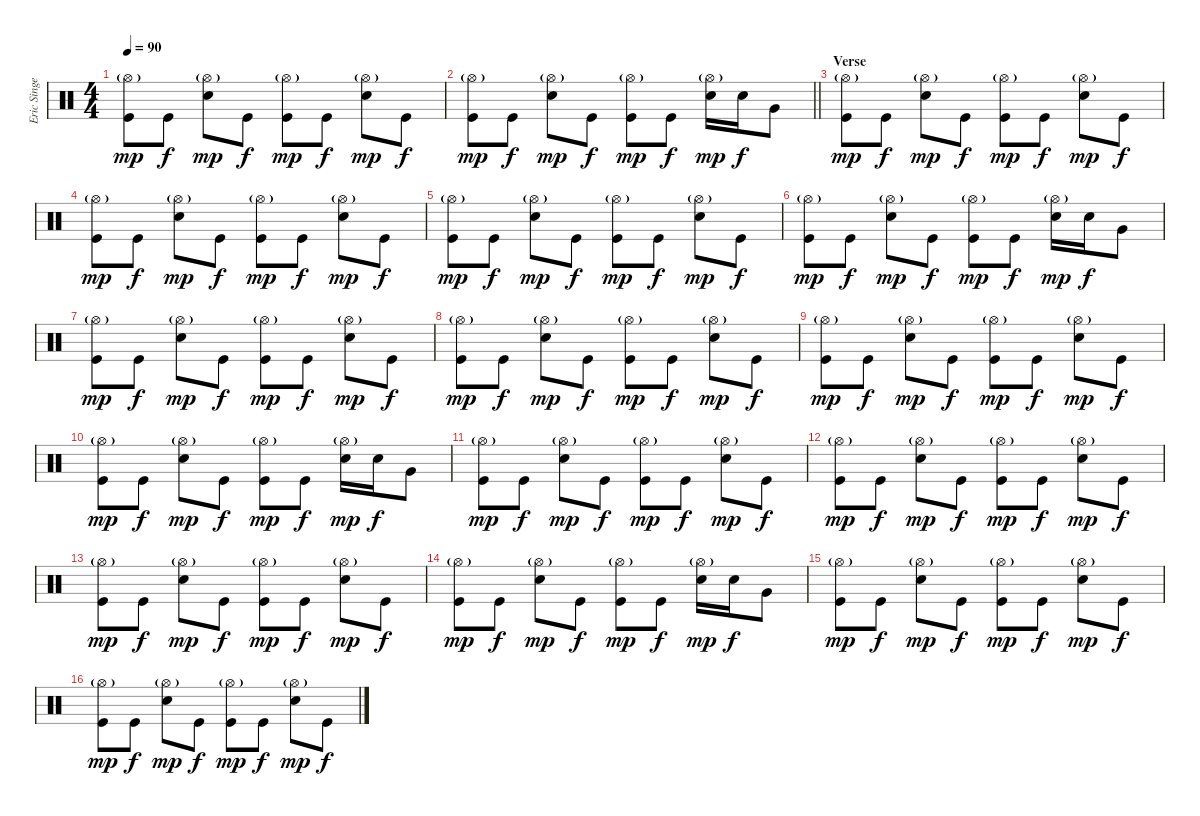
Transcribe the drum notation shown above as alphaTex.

\track ("Eric Singer (Drums)" "Eric Singe") {instrument percussion}
\staff {score}
\articulation defaults
\ts (4 4)
\tempo 90
\clef neutral
\ks c
("Hi-Hat (open)"{g} "Kick (hit)").8{dy mp} "Kick (hit)".8{dy f} ("Hi-Hat (open)"{g} "Snare (hit) 2").8{dy mp} "Kick (hit)".8{dy f} ("Hi-Hat (open)"{g} "Kick (hit)").8{dy mp} "Kick (hit)".8{dy f} ("Hi-Hat (open)"{g} "Snare (hit) 2").8{dy mp} "Kick (hit)".8{dy f} |
\barLineRight lightlight
("Hi-Hat (open)"{g} "Kick (hit)").8{dy mp} "Kick (hit)".8{dy f} ("Hi-Hat (open)"{g} "Snare (hit) 2").8{dy mp} "Kick (hit)".8{dy f} ("Hi-Hat (open)"{g} "Kick (hit)").8{dy mp} "Kick (hit)".8{dy f} ("Hi-Hat (open)"{g} "Snare (hit) 2").16{dy mp} "Snare (hit) 2".16{dy f} "Very Low Tom (hit)".8 |
\section ("" "Verse")
("Hi-Hat (open)"{g} "Kick (hit)").8{dy mp} "Kick (hit)".8{dy f} ("Hi-Hat (open)"{g} "Snare (hit) 2").8{dy mp} "Kick (hit)".8{dy f} ("Hi-Hat (open)"{g} "Kick (hit)").8{dy mp} "Kick (hit)".8{dy f} ("Hi-Hat (open)"{g} "Snare (hit) 2").8{dy mp} "Kick (hit)".8{dy f} |
("Hi-Hat (open)"{g} "Kick (hit)").8{dy mp} "Kick (hit)".8{dy f} ("Hi-Hat (open)"{g} "Snare (hit) 2").8{dy mp} "Kick (hit)".8{dy f} ("Hi-Hat (open)"{g} "Kick (hit)").8{dy mp} "Kick (hit)".8{dy f} ("Hi-Hat (open)"{g} "Snare (hit) 2").8{dy mp} "Kick (hit)".8{dy f} |
("Hi-Hat (open)"{g} "Kick (hit)").8{dy mp} "Kick (hit)".8{dy f} ("Hi-Hat (open)"{g} "Snare (hit) 2").8{dy mp} "Kick (hit)".8{dy f} ("Hi-Hat (open)"{g} "Kick (hit)").8{dy mp} "Kick (hit)".8{dy f} ("Hi-Hat (open)"{g} "Snare (hit) 2").8{dy mp} "Kick (hit)".8{dy f} |
("Hi-Hat (open)"{g} "Kick (hit)").8{dy mp} "Kick (hit)".8{dy f} ("Hi-Hat (open)"{g} "Snare (hit) 2").8{dy mp} "Kick (hit)".8{dy f} ("Hi-Hat (open)"{g} "Kick (hit)").8{dy mp} "Kick (hit)".8{dy f} ("Hi-Hat (open)"{g} "Snare (hit) 2").16{dy mp} "Snare (hit) 2".16{dy f} "Very Low Tom (hit)".8 |
("Hi-Hat (open)"{g} "Kick (hit)").8{dy mp} "Kick (hit)".8{dy f} ("Hi-Hat (open)"{g} "Snare (hit) 2").8{dy mp} "Kick (hit)".8{dy f} ("Hi-Hat (open)"{g} "Kick (hit)").8{dy mp} "Kick (hit)".8{dy f} ("Hi-Hat (open)"{g} "Snare (hit) 2").8{dy mp} "Kick (hit)".8{dy f} |
("Hi-Hat (open)"{g} "Kick (hit)").8{dy mp} "Kick (hit)".8{dy f} ("Hi-Hat (open)"{g} "Snare (hit) 2").8{dy mp} "Kick (hit)".8{dy f} ("Hi-Hat (open)"{g} "Kick (hit)").8{dy mp} "Kick (hit)".8{dy f} ("Hi-Hat (open)"{g} "Snare (hit) 2").8{dy mp} "Kick (hit)".8{dy f} |
("Hi-Hat (open)"{g} "Kick (hit)").8{dy mp} "Kick (hit)".8{dy f} ("Hi-Hat (open)"{g} "Snare (hit) 2").8{dy mp} "Kick (hit)".8{dy f} ("Hi-Hat (open)"{g} "Kick (hit)").8{dy mp} "Kick (hit)".8{dy f} ("Hi-Hat (open)"{g} "Snare (hit) 2").8{dy mp} "Kick (hit)".8{dy f} |
("Hi-Hat (open)"{g} "Kick (hit)").8{dy mp} "Kick (hit)".8{dy f} ("Hi-Hat (open)"{g} "Snare (hit) 2").8{dy mp} "Kick (hit)".8{dy f} ("Hi-Hat (open)"{g} "Kick (hit)").8{dy mp} "Kick (hit)".8{dy f} ("Hi-Hat (open)"{g} "Snare (hit) 2").16{dy mp} "Snare (hit) 2".16{dy f} "Very Low Tom (hit)".8 |
("Hi-Hat (open)"{g} "Kick (hit)").8{dy mp} "Kick (hit)".8{dy f} ("Hi-Hat (open)"{g} "Snare (hit) 2").8{dy mp} "Kick (hit)".8{dy f} ("Hi-Hat (open)"{g} "Kick (hit)").8{dy mp} "Kick (hit)".8{dy f} ("Hi-Hat (open)"{g} "Snare (hit) 2").8{dy mp} "Kick (hit)".8{dy f} |
("Hi-Hat (open)"{g} "Kick (hit)").8{dy mp} "Kick (hit)".8{dy f} ("Hi-Hat (open)"{g} "Snare (hit) 2").8{dy mp} "Kick (hit)".8{dy f} ("Hi-Hat (open)"{g} "Kick (hit)").8{dy mp} "Kick (hit)".8{dy f} ("Hi-Hat (open)"{g} "Snare (hit) 2").8{dy mp} "Kick (hit)".8{dy f} |
("Hi-Hat (open)"{g} "Kick (hit)").8{dy mp} "Kick (hit)".8{dy f} ("Hi-Hat (open)"{g} "Snare (hit) 2").8{dy mp} "Kick (hit)".8{dy f} ("Hi-Hat (open)"{g} "Kick (hit)").8{dy mp} "Kick (hit)".8{dy f} ("Hi-Hat (open)"{g} "Snare (hit) 2").8{dy mp} "Kick (hit)".8{dy f} |
("Hi-Hat (open)"{g} "Kick (hit)").8{dy mp} "Kick (hit)".8{dy f} ("Hi-Hat (open)"{g} "Snare (hit) 2").8{dy mp} "Kick (hit)".8{dy f} ("Hi-Hat (open)"{g} "Kick (hit)").8{dy mp} "Kick (hit)".8{dy f} ("Hi-Hat (open)"{g} "Snare (hit) 2").16{dy mp} "Snare (hit) 2".16{dy f} "Very Low Tom (hit)".8 |
("Hi-Hat (open)"{g} "Kick (hit)").8{dy mp} "Kick (hit)".8{dy f} ("Hi-Hat (open)"{g} "Snare (hit) 2").8{dy mp} "Kick (hit)".8{dy f} ("Hi-Hat (open)"{g} "Kick (hit)").8{dy mp} "Kick (hit)".8{dy f} ("Hi-Hat (open)"{g} "Snare (hit) 2").8{dy mp} "Kick (hit)".8{dy f} |
("Hi-Hat (open)"{g} "Kick (hit)").8{dy mp} "Kick (hit)".8{dy f} ("Hi-Hat (open)"{g} "Snare (hit) 2").8{dy mp} "Kick (hit)".8{dy f} ("Hi-Hat (open)"{g} "Kick (hit)").8{dy mp} "Kick (hit)".8{dy f} ("Hi-Hat (open)"{g} "Snare (hit) 2").8{dy mp} "Kick (hit)".8{dy f}
